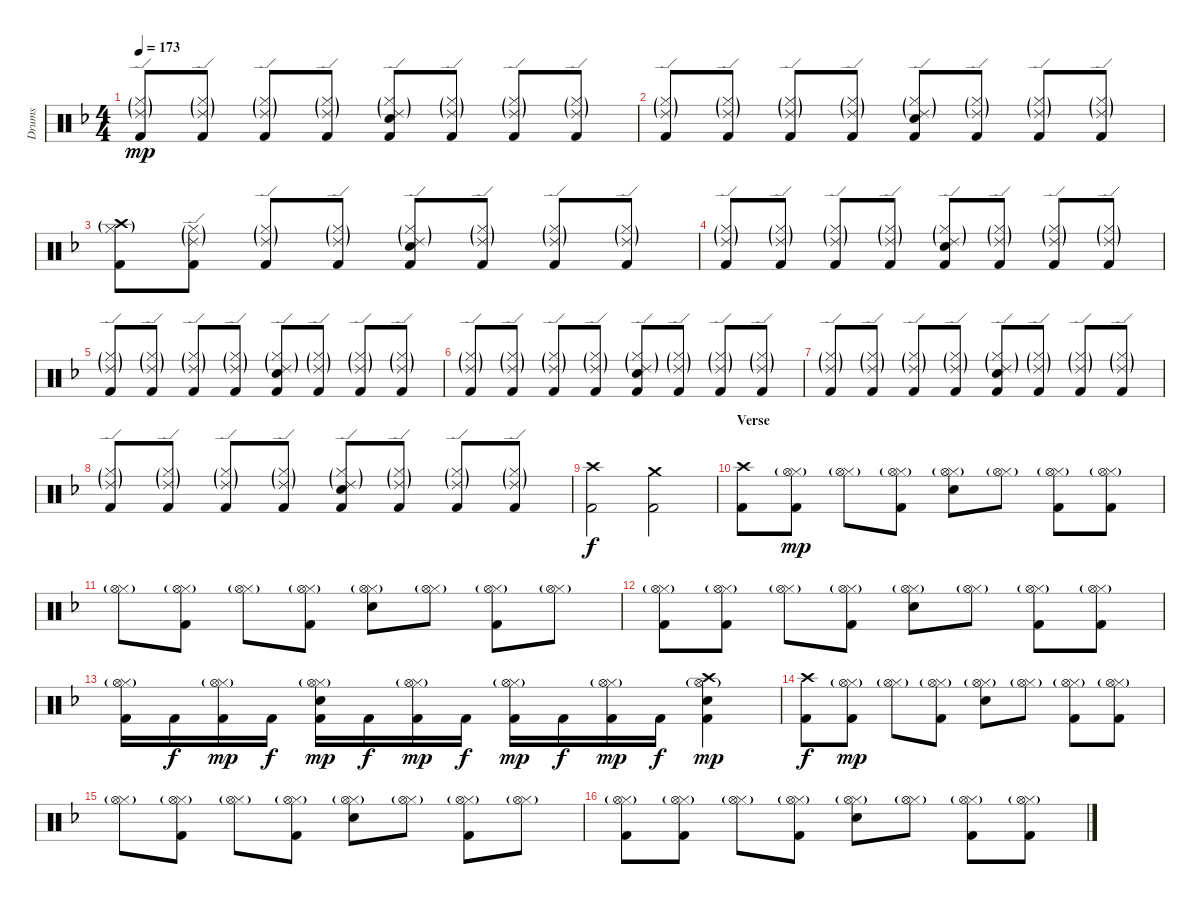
\track ("Drums" "Drums") {instrument percussion}
\staff {score}
\articulation defaults
\ts (4 4)
\tempo 173
\clef neutral
\ks dminor
("Ride (edge) 2"{g} "Hi-Hat (closed)"{g} "Kick (hit) 2").8{dy mp} ("Ride (edge) 2"{g} "Hi-Hat (closed)"{g} "Kick (hit) 2").8 ("Ride (edge) 2"{g} "Hi-Hat (closed)"{g} "Kick (hit) 2").8 ("Ride (edge) 2"{g} "Hi-Hat (closed)"{g} "Kick (hit) 2").8 ("Ride (edge) 2"{g} "Hi-Hat (closed)"{g} "Snare (hit) 2" "Kick (hit) 2").8 ("Ride (edge) 2"{g} "Hi-Hat (closed)"{g} "Kick (hit) 2").8 ("Ride (edge) 2"{g} "Hi-Hat (closed)"{g} "Kick (hit) 2").8 ("Ride (edge) 2"{g} "Hi-Hat (closed)"{g} "Kick (hit) 2").8 |
("Ride (edge) 2"{g} "Hi-Hat (closed)"{g} "Kick (hit) 2").8 ("Ride (edge) 2"{g} "Hi-Hat (closed)"{g} "Kick (hit) 2").8 ("Ride (edge) 2"{g} "Hi-Hat (closed)"{g} "Kick (hit) 2").8 ("Ride (edge) 2"{g} "Hi-Hat (closed)"{g} "Kick (hit) 2").8 ("Ride (edge) 2"{g} "Hi-Hat (closed)"{g} "Snare (hit) 2" "Kick (hit) 2").8 ("Ride (edge) 2"{g} "Hi-Hat (closed)"{g} "Kick (hit) 2").8 ("Ride (edge) 2"{g} "Hi-Hat (closed)"{g} "Kick (hit) 2").8 ("Ride (edge) 2"{g} "Hi-Hat (closed)"{g} "Kick (hit) 2").8 |
("Crash high (hit)"{g} "Hi-Hat (closed)"{g} "Kick (hit) 2").8 ("Ride (edge) 2"{g} "Hi-Hat (closed)"{g} "Kick (hit) 2").8 ("Ride (edge) 2"{g} "Hi-Hat (closed)"{g} "Kick (hit) 2").8 ("Ride (edge) 2"{g} "Hi-Hat (closed)"{g} "Kick (hit) 2").8 ("Ride (edge) 2"{g} "Hi-Hat (closed)"{g} "Snare (hit) 2" "Kick (hit) 2").8 ("Ride (edge) 2"{g} "Hi-Hat (closed)"{g} "Kick (hit) 2").8 ("Ride (edge) 2"{g} "Hi-Hat (closed)"{g} "Kick (hit) 2").8 ("Ride (edge) 2"{g} "Hi-Hat (closed)"{g} "Kick (hit) 2").8 |
("Ride (edge) 2"{g} "Hi-Hat (closed)"{g} "Kick (hit) 2").8 ("Ride (edge) 2"{g} "Hi-Hat (closed)"{g} "Kick (hit) 2").8 ("Ride (edge) 2"{g} "Hi-Hat (closed)"{g} "Kick (hit) 2").8 ("Ride (edge) 2"{g} "Hi-Hat (closed)"{g} "Kick (hit) 2").8 ("Ride (edge) 2"{g} "Hi-Hat (closed)"{g} "Snare (hit) 2" "Kick (hit) 2").8 ("Ride (edge) 2"{g} "Hi-Hat (closed)"{g} "Kick (hit) 2").8 ("Ride (edge) 2"{g} "Hi-Hat (closed)"{g} "Kick (hit) 2").8 ("Ride (edge) 2"{g} "Hi-Hat (closed)"{g} "Kick (hit) 2").8 |
("Ride (edge) 2"{g} "Hi-Hat (closed)"{g} "Kick (hit) 2").8 ("Ride (edge) 2"{g} "Hi-Hat (closed)"{g} "Kick (hit) 2").8 ("Ride (edge) 2"{g} "Hi-Hat (closed)"{g} "Kick (hit) 2").8 ("Ride (edge) 2"{g} "Hi-Hat (closed)"{g} "Kick (hit) 2").8 ("Ride (edge) 2"{g} "Hi-Hat (closed)"{g} "Snare (hit) 2" "Kick (hit) 2").8 ("Ride (edge) 2"{g} "Hi-Hat (closed)"{g} "Kick (hit) 2").8 ("Ride (edge) 2"{g} "Hi-Hat (closed)"{g} "Kick (hit) 2").8 ("Ride (edge) 2"{g} "Hi-Hat (closed)"{g} "Kick (hit) 2").8 |
("Ride (edge) 2"{g} "Hi-Hat (closed)"{g} "Kick (hit) 2").8 ("Ride (edge) 2"{g} "Hi-Hat (closed)"{g} "Kick (hit) 2").8 ("Ride (edge) 2"{g} "Hi-Hat (closed)"{g} "Kick (hit) 2").8 ("Ride (edge) 2"{g} "Hi-Hat (closed)"{g} "Kick (hit) 2").8 ("Ride (edge) 2"{g} "Hi-Hat (closed)"{g} "Snare (hit) 2" "Kick (hit) 2").8 ("Ride (edge) 2"{g} "Hi-Hat (closed)"{g} "Kick (hit) 2").8 ("Ride (edge) 2"{g} "Hi-Hat (closed)"{g} "Kick (hit) 2").8 ("Ride (edge) 2"{g} "Hi-Hat (closed)"{g} "Kick (hit) 2").8 |
("Ride (edge) 2"{g} "Hi-Hat (closed)"{g} "Kick (hit) 2").8 ("Ride (edge) 2"{g} "Hi-Hat (closed)"{g} "Kick (hit) 2").8 ("Ride (edge) 2"{g} "Hi-Hat (closed)"{g} "Kick (hit) 2").8 ("Ride (edge) 2"{g} "Hi-Hat (closed)"{g} "Kick (hit) 2").8 ("Ride (edge) 2"{g} "Hi-Hat (closed)"{g} "Snare (hit) 2" "Kick (hit) 2").8 ("Ride (edge) 2"{g} "Hi-Hat (closed)"{g} "Kick (hit) 2").8 ("Ride (edge) 2"{g} "Hi-Hat (closed)"{g} "Kick (hit) 2").8 ("Ride (edge) 2"{g} "Hi-Hat (closed)"{g} "Kick (hit) 2").8 |
("Ride (edge) 2"{g} "Hi-Hat (closed)"{g} "Kick (hit) 2").8 ("Ride (edge) 2"{g} "Hi-Hat (closed)"{g} "Kick (hit) 2").8 ("Ride (edge) 2"{g} "Hi-Hat (closed)"{g} "Kick (hit) 2").8 ("Ride (edge) 2"{g} "Hi-Hat (closed)"{g} "Kick (hit) 2").8 ("Ride (edge) 2"{g} "Hi-Hat (closed)"{g} "Snare (hit) 2" "Kick (hit) 2").8 ("Ride (edge) 2"{g} "Hi-Hat (closed)"{g} "Kick (hit) 2").8 ("Ride (edge) 2"{g} "Hi-Hat (closed)"{g} "Kick (hit) 2").8 ("Ride (edge) 2"{g} "Hi-Hat (closed)"{g} "Kick (hit) 2").8 |
("Crash high (hit)" "Kick (hit) 2").2{dy f} ("Crash medium (hit)" "Kick (hit) 2").2 |
\section ("" "Verse")
("Crash high (hit)" "Kick (hit) 2").8 ("Hi-Hat (closed)"{g} "Hi-Hat (open)"{g} "Kick (hit) 2").8{dy mp} ("Hi-Hat (closed)"{g} "Hi-Hat (open)"{g}).8 ("Hi-Hat (closed)"{g} "Hi-Hat (open)"{g} "Kick (hit) 2").8 ("Hi-Hat (closed)"{g} "Hi-Hat (open)"{g} "Snare (hit) 2").8 ("Hi-Hat (closed)"{g} "Hi-Hat (open)"{g}).8 ("Hi-Hat (closed)"{g} "Hi-Hat (open)"{g} "Kick (hit) 2").8 ("Hi-Hat (closed)"{g} "Hi-Hat (open)"{g} "Kick (hit) 2").8 |
("Hi-Hat (closed)"{g} "Hi-Hat (open)"{g}).8 ("Hi-Hat (closed)"{g} "Hi-Hat (open)"{g} "Kick (hit) 2").8 ("Hi-Hat (closed)"{g} "Hi-Hat (open)"{g}).8 ("Hi-Hat (closed)"{g} "Hi-Hat (open)"{g} "Kick (hit) 2").8 ("Hi-Hat (closed)"{g} "Hi-Hat (open)"{g} "Snare (hit) 2").8 ("Hi-Hat (closed)"{g} "Hi-Hat (open)"{g}).8 ("Hi-Hat (closed)"{g} "Hi-Hat (open)"{g} "Kick (hit) 2").8 ("Hi-Hat (closed)"{g} "Hi-Hat (open)"{g}).8 |
("Hi-Hat (closed)"{g} "Hi-Hat (open)"{g} "Kick (hit) 2").8 ("Hi-Hat (closed)"{g} "Hi-Hat (open)"{g} "Kick (hit) 2").8 ("Hi-Hat (closed)"{g} "Hi-Hat (open)"{g}).8 ("Hi-Hat (closed)"{g} "Hi-Hat (open)"{g} "Kick (hit) 2").8 ("Hi-Hat (closed)"{g} "Hi-Hat (open)"{g} "Snare (hit) 2").8 ("Hi-Hat (closed)"{g} "Hi-Hat (open)"{g}).8 ("Hi-Hat (closed)"{g} "Hi-Hat (open)"{g} "Kick (hit) 2").8 ("Hi-Hat (closed)"{g} "Hi-Hat (open)"{g} "Kick (hit) 2").8 |
("Hi-Hat (closed)"{g} "Hi-Hat (open)"{g} "Kick (hit) 2").16 "Kick (hit) 2".16{dy f} ("Hi-Hat (closed)"{g} "Hi-Hat (open)"{g} "Kick (hit) 2").16{dy mp} "Kick (hit) 2".16{dy f} ("Hi-Hat (closed)"{g} "Hi-Hat (open)"{g} "Snare (hit) 2" "Kick (hit) 2").16{dy mp} "Kick (hit) 2".16{dy f} ("Hi-Hat (closed)"{g} "Hi-Hat (open)"{g} "Kick (hit) 2").16{dy mp} "Kick (hit) 2".16{dy f} ("Hi-Hat (closed)"{g} "Hi-Hat (open)"{g} "Kick (hit) 2").16{dy mp} "Kick (hit) 2".16{dy f} ("Hi-Hat (closed)"{g} "Hi-Hat (open)"{g} "Kick (hit) 2").16{dy mp} "Kick (hit) 2".16{dy f} ("Crash high (hit)" "Hi-Hat (open)"{g} "Snare (hit) 2" "Kick (hit) 2").4{dy mp} |
("Crash high (hit)" "Kick (hit) 2").8{dy f} ("Hi-Hat (closed)"{g} "Hi-Hat (open)"{g} "Kick (hit) 2").8{dy mp} ("Hi-Hat (closed)"{g} "Hi-Hat (open)"{g}).8 ("Hi-Hat (closed)"{g} "Hi-Hat (open)"{g} "Kick (hit) 2").8 ("Hi-Hat (closed)"{g} "Hi-Hat (open)"{g} "Snare (hit) 2").8 ("Hi-Hat (closed)"{g} "Hi-Hat (open)"{g}).8 ("Hi-Hat (closed)"{g} "Hi-Hat (open)"{g} "Kick (hit) 2").8 ("Hi-Hat (closed)"{g} "Hi-Hat (open)"{g} "Kick (hit) 2").8 |
("Hi-Hat (closed)"{g} "Hi-Hat (open)"{g}).8 ("Hi-Hat (closed)"{g} "Hi-Hat (open)"{g} "Kick (hit) 2").8 ("Hi-Hat (closed)"{g} "Hi-Hat (open)"{g}).8 ("Hi-Hat (closed)"{g} "Hi-Hat (open)"{g} "Kick (hit) 2").8 ("Hi-Hat (closed)"{g} "Hi-Hat (open)"{g} "Snare (hit) 2").8 ("Hi-Hat (closed)"{g} "Hi-Hat (open)"{g}).8 ("Hi-Hat (closed)"{g} "Hi-Hat (open)"{g} "Kick (hit) 2").8 ("Hi-Hat (closed)"{g} "Hi-Hat (open)"{g}).8 |
("Hi-Hat (closed)"{g} "Hi-Hat (open)"{g} "Kick (hit) 2").8 ("Hi-Hat (closed)"{g} "Hi-Hat (open)"{g} "Kick (hit) 2").8 ("Hi-Hat (closed)"{g} "Hi-Hat (open)"{g}).8 ("Hi-Hat (closed)"{g} "Hi-Hat (open)"{g} "Kick (hit) 2").8 ("Hi-Hat (closed)"{g} "Hi-Hat (open)"{g} "Snare (hit) 2").8 ("Hi-Hat (closed)"{g} "Hi-Hat (open)"{g}).8 ("Hi-Hat (closed)"{g} "Hi-Hat (open)"{g} "Kick (hit) 2").8 ("Hi-Hat (closed)"{g} "Hi-Hat (open)"{g} "Kick (hit) 2").8
